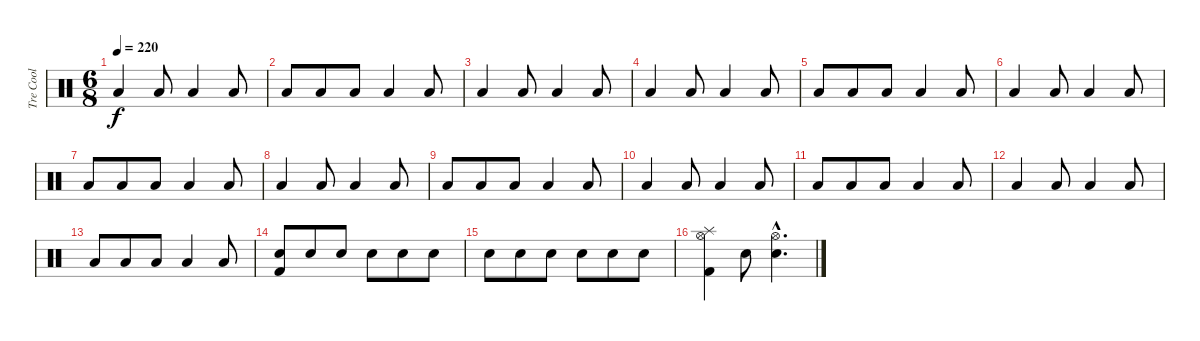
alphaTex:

\track ("Tre Cool" "Tre Cool") {instrument percussion}
\staff {score}
\articulation defaults
\ts (6 8)
\tempo 220
\clef neutral
\ks c "Low Floor Tom (hit)".4{dy f} "Low Floor Tom (hit)".8 "Low Tom (hit)".4 "Low Tom (hit)".8
|
"Low Floor Tom (hit)".8 "Low Floor Tom (hit)".8 "Low Floor Tom (hit)".8 "Low Tom (hit)".4 "Low Tom (hit)".8 |
"Low Floor Tom (hit)".4 "Low Floor Tom (hit)".8 "Low Tom (hit)".4 "Low Tom (hit)".8 |
"Low Floor Tom (hit)".4 "Low Floor Tom (hit)".8 "Low Tom (hit)".4 "Low Tom (hit)".8 |
"Low Floor Tom (hit)".8 "Low Floor Tom (hit)".8 "Low Floor Tom (hit)".8 "Low Tom (hit)".4 "Low Tom (hit)".8 |
"Low Floor Tom (hit)".4 "Low Floor Tom (hit)".8 "Low Tom (hit)".4 "Low Tom (hit)".8 |
"Low Floor Tom (hit)".8 "Low Floor Tom (hit)".8 "Low Floor Tom (hit)".8 "Low Tom (hit)".4 "Low Tom (hit)".8 |
"Low Floor Tom (hit)".4 "Low Floor Tom (hit)".8 "Low Tom (hit)".4 "Low Tom (hit)".8 |
"Low Floor Tom (hit)".8 "Low Floor Tom (hit)".8 "Low Floor Tom (hit)".8 "Low Tom (hit)".4 "Low Tom (hit)".8 |
"Low Floor Tom (hit)".4 "Low Floor Tom (hit)".8 "Low Tom (hit)".4 "Low Tom (hit)".8 |
"Low Floor Tom (hit)".8 "Low Floor Tom (hit)".8 "Low Floor Tom (hit)".8 "Low Tom (hit)".4 "Low Tom (hit)".8 |
"Low Floor Tom (hit)".4 "Low Floor Tom (hit)".8 "Low Tom (hit)".4 "Low Tom (hit)".8 |
"Low Floor Tom (hit)".8 "Low Floor Tom (hit)".8 "Low Floor Tom (hit)".8 "Low Tom (hit)".4 "Low Tom (hit)".8 |
("Electric Snare (hit)" "Kick (hit) 2").8 "Electric Snare (hit)".8 "Electric Snare (hit)".8 "Electric Snare (hit)".8 "Electric Snare (hit)".8 "Electric Snare (hit)".8 |
"Electric Snare (hit)".8 "Electric Snare (hit)".8 "Electric Snare (hit)".8 "Electric Snare (hit)".8 "Electric Snare (hit)".8 "Electric Snare (hit)".8 |
("Hi-Hat (open)" "Splash (hit)" "Kick (hit) 2").4 "Snare (hit) 2".8 ("Electric Snare (hit)"{hac} "Hi-Hat (open)"{hac}).4{d}
